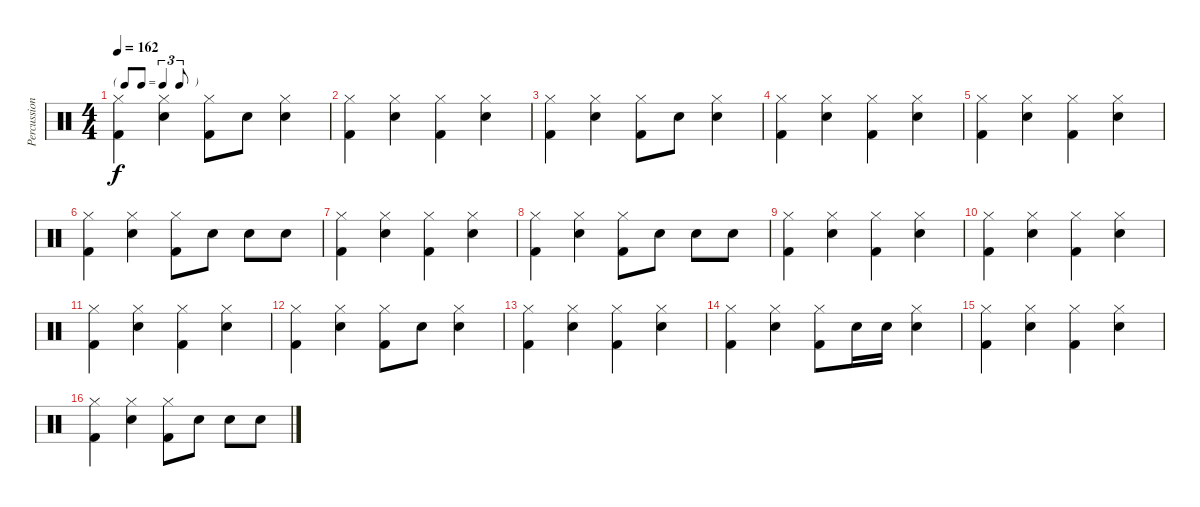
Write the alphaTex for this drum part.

\track ("Percussion" "Percussion") {instrument percussion}
\staff {score}
\articulation defaults
\ts (4 4)
\tf triplet8th
\tempo 162
\clef neutral
\ks c
("Kick (hit) 2" "Hi-Hat (closed)").4{dy f} ("Snare (hit) 2" "Hi-Hat (closed)").4 ("Kick (hit) 2" "Hi-Hat (closed)").8 "Snare (hit) 2".8 ("Snare (hit) 2" "Hi-Hat (closed)").4 |
("Kick (hit) 2" "Hi-Hat (closed)").4 ("Snare (hit) 2" "Hi-Hat (closed)").4 ("Kick (hit) 2" "Hi-Hat (closed)").4 ("Snare (hit) 2" "Hi-Hat (closed)").4 |
("Kick (hit) 2" "Hi-Hat (closed)").4 ("Snare (hit) 2" "Hi-Hat (closed)").4 ("Kick (hit) 2" "Hi-Hat (closed)").8 "Snare (hit) 2".8 ("Snare (hit) 2" "Hi-Hat (closed)").4 |
("Kick (hit) 2" "Hi-Hat (closed)").4 ("Snare (hit) 2" "Hi-Hat (closed)").4 ("Kick (hit) 2" "Hi-Hat (closed)").4 ("Snare (hit) 2" "Hi-Hat (closed)").4 |
("Kick (hit) 2" "Hi-Hat (closed)").4 ("Snare (hit) 2" "Hi-Hat (closed)").4 ("Kick (hit) 2" "Hi-Hat (closed)").4 ("Snare (hit) 2" "Hi-Hat (closed)").4 |
("Kick (hit) 2" "Hi-Hat (closed)").4 ("Snare (hit) 2" "Hi-Hat (closed)").4 ("Kick (hit) 2" "Hi-Hat (closed)").8 "Snare (hit) 2".8 "Snare (hit) 2".8 "Snare (hit) 2".8 |
("Kick (hit) 2" "Hi-Hat (closed)").4 ("Snare (hit) 2" "Hi-Hat (closed)").4 ("Kick (hit) 2" "Hi-Hat (closed)").4 ("Snare (hit) 2" "Hi-Hat (closed)").4 |
("Kick (hit) 2" "Hi-Hat (closed)").4 ("Snare (hit) 2" "Hi-Hat (closed)").4 ("Kick (hit) 2" "Hi-Hat (closed)").8 "Snare (hit) 2".8 "Snare (hit) 2".8 "Snare (hit) 2".8 |
("Kick (hit) 2" "Hi-Hat (closed)").4 ("Snare (hit) 2" "Hi-Hat (closed)").4 ("Kick (hit) 2" "Hi-Hat (closed)").4 ("Snare (hit) 2" "Hi-Hat (closed)").4 |
("Kick (hit) 2" "Hi-Hat (closed)").4 ("Snare (hit) 2" "Hi-Hat (closed)").4 ("Kick (hit) 2" "Hi-Hat (closed)").4 ("Snare (hit) 2" "Hi-Hat (closed)").4 |
("Kick (hit) 2" "Hi-Hat (closed)").4 ("Snare (hit) 2" "Hi-Hat (closed)").4 ("Kick (hit) 2" "Hi-Hat (closed)").4 ("Snare (hit) 2" "Hi-Hat (closed)").4 |
("Kick (hit) 2" "Hi-Hat (closed)").4 ("Snare (hit) 2" "Hi-Hat (closed)").4 ("Kick (hit) 2" "Hi-Hat (closed)").8 "Snare (hit) 2".8 ("Snare (hit) 2" "Hi-Hat (closed)").4 |
("Kick (hit) 2" "Hi-Hat (closed)").4 ("Snare (hit) 2" "Hi-Hat (closed)").4 ("Kick (hit) 2" "Hi-Hat (closed)").4 ("Snare (hit) 2" "Hi-Hat (closed)").4 |
("Kick (hit) 2" "Hi-Hat (closed)").4 ("Snare (hit) 2" "Hi-Hat (closed)").4 ("Kick (hit) 2" "Hi-Hat (closed)").8 "Snare (hit) 2".16 "Snare (hit) 2".16 ("Snare (hit) 2" "Hi-Hat (closed)").4 |
("Kick (hit) 2" "Hi-Hat (closed)").4 ("Snare (hit) 2" "Hi-Hat (closed)").4 ("Kick (hit) 2" "Hi-Hat (closed)").4 ("Snare (hit) 2" "Hi-Hat (closed)").4 |
("Kick (hit) 2" "Hi-Hat (closed)").4 ("Snare (hit) 2" "Hi-Hat (closed)").4 ("Kick (hit) 2" "Hi-Hat (closed)").8 "Snare (hit) 2".8 "Snare (hit) 2".8 "Snare (hit) 2".8
